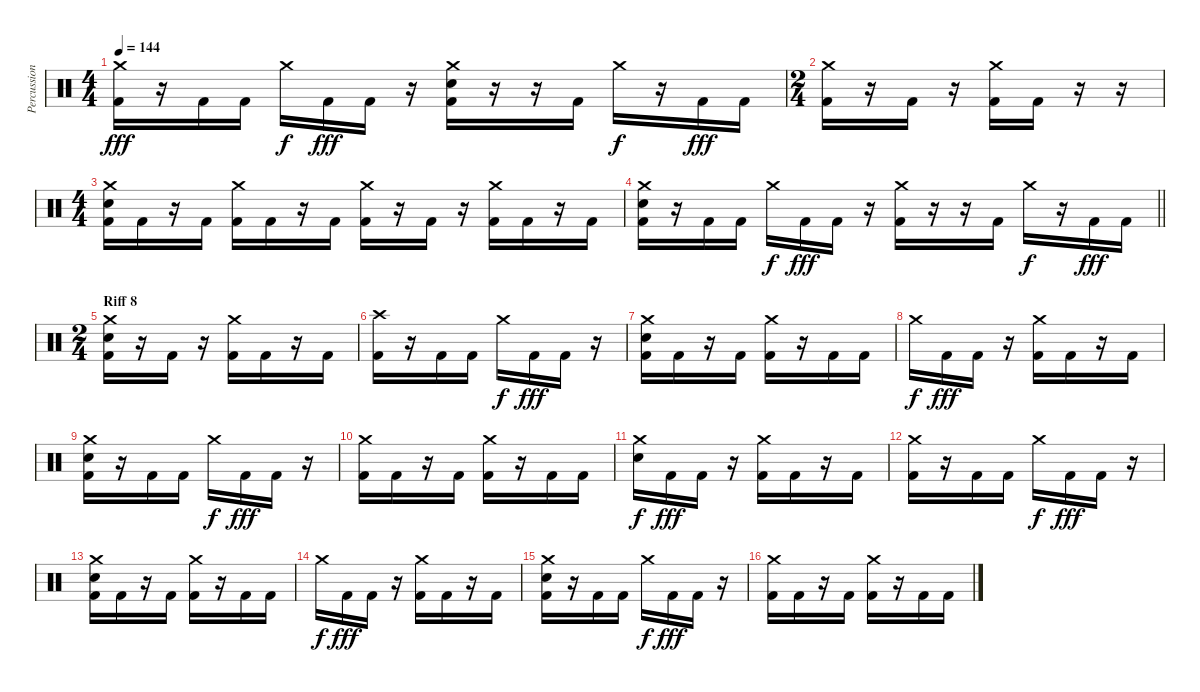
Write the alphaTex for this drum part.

\track ("Percussion" "Percussion") {instrument percussion}
\staff {score}
\articulation defaults
\ts (4 4)
\tempo 144
\clef neutral
\ks c
("Crash medium (hit)" "Kick (hit) 2").16{dy fff} r.16 "Kick (hit) 2".16 "Kick (hit) 2".16 "Crash medium (hit)".16{dy f} "Kick (hit) 2".16{dy fff} "Kick (hit) 2".16 r.16 ("Crash medium (hit)" "Electric Snare (hit)" "Kick (hit) 2").16 r.16 r.16 "Kick (hit) 2".16 "Crash medium (hit)".16{dy f} r.16 "Kick (hit) 2".16{dy fff} "Kick (hit) 2".16 |
\ts (2 4)
("Crash medium (hit)" "Kick (hit) 2").16 r.16 "Kick (hit) 2".16 r.16 ("Crash medium (hit)" "Kick (hit) 2").16 "Kick (hit) 2".16 r.16 r.16 |
\ts (4 4)
("Crash medium (hit)" "Electric Snare (hit)" "Kick (hit) 2").16 "Kick (hit) 2".16 r.16 "Kick (hit) 2".16 ("Crash medium (hit)" "Kick (hit) 2").16 "Kick (hit) 2".16 r.16 "Kick (hit) 2".16 ("Crash medium (hit)" "Kick (hit) 2").16 r.16 "Kick (hit) 2".16 r.16 ("Crash medium (hit)" "Kick (hit) 2").16 "Kick (hit) 2".16 r.16 "Kick (hit) 2".16 |
\barLineRight lightlight
("Crash medium (hit)" "Electric Snare (hit)" "Kick (hit) 2").16 r.16 "Kick (hit) 2".16 "Kick (hit) 2".16 "Crash medium (hit)".16{dy f} "Kick (hit) 2".16{dy fff} "Kick (hit) 2".16 r.16 ("Crash medium (hit)" "Kick (hit) 2").16 r.16 r.16 "Kick (hit) 2".16 "Crash medium (hit)".16{dy f} r.16 "Kick (hit) 2".16{dy fff} "Kick (hit) 2".16 |
\ts (2 4)
\section ("" "Riff 8")
("Crash medium (hit)" "Electric Snare (hit)" "Kick (hit) 2").16 r.16 "Kick (hit) 2".16 r.16 ("Crash medium (hit)" "Kick (hit) 2").16 "Kick (hit) 2".16 r.16 "Kick (hit) 2".16 |
("Crash high (hit)" "Kick (hit) 2").16 r.16 "Kick (hit) 2".16 "Kick (hit) 2".16 "Crash medium (hit)".16{dy f} "Kick (hit) 2".16{dy fff} "Kick (hit) 2".16 r.16 |
("Crash medium (hit)" "Electric Snare (hit)" "Kick (hit) 2").16 "Kick (hit) 2".16 r.16 "Kick (hit) 2".16 ("Crash medium (hit)" "Kick (hit) 2").16 r.16 "Kick (hit) 2".16 "Kick (hit) 2".16 |
"Crash medium (hit)".16{dy f} "Kick (hit) 2".16{dy fff} "Kick (hit) 2".16 r.16 ("Crash medium (hit)" "Kick (hit) 2").16 "Kick (hit) 2".16 r.16 "Kick (hit) 2".16 |
("Crash medium (hit)" "Electric Snare (hit)" "Kick (hit) 2").16 r.16 "Kick (hit) 2".16 "Kick (hit) 2".16 "Crash medium (hit)".16{dy f} "Kick (hit) 2".16{dy fff} "Kick (hit) 2".16 r.16 |
("Crash medium (hit)" "Kick (hit) 2").16 "Kick (hit) 2".16 r.16 "Kick (hit) 2".16 ("Crash medium (hit)" "Kick (hit) 2").16 r.16 "Kick (hit) 2".16 "Kick (hit) 2".16 |
("Crash medium (hit)" "Electric Snare (hit)").16{dy f} "Kick (hit) 2".16{dy fff} "Kick (hit) 2".16 r.16 ("Crash medium (hit)" "Kick (hit) 2").16 "Kick (hit) 2".16 r.16 "Kick (hit) 2".16 |
("Crash medium (hit)" "Kick (hit) 2").16 r.16 "Kick (hit) 2".16 "Kick (hit) 2".16 "Crash medium (hit)".16{dy f} "Kick (hit) 2".16{dy fff} "Kick (hit) 2".16 r.16 |
("Crash medium (hit)" "Electric Snare (hit)" "Kick (hit) 2").16 "Kick (hit) 2".16 r.16 "Kick (hit) 2".16 ("Crash medium (hit)" "Kick (hit) 2").16 r.16 "Kick (hit) 2".16 "Kick (hit) 2".16 |
"Crash medium (hit)".16{dy f} "Kick (hit) 2".16{dy fff} "Kick (hit) 2".16 r.16 ("Crash medium (hit)" "Kick (hit) 2").16 "Kick (hit) 2".16 r.16 "Kick (hit) 2".16 |
("Crash medium (hit)" "Electric Snare (hit)" "Kick (hit) 2").16 r.16 "Kick (hit) 2".16 "Kick (hit) 2".16 "Crash medium (hit)".16{dy f} "Kick (hit) 2".16{dy fff} "Kick (hit) 2".16 r.16 |
("Crash medium (hit)" "Kick (hit) 2").16 "Kick (hit) 2".16 r.16 "Kick (hit) 2".16 ("Crash medium (hit)" "Kick (hit) 2").16 r.16 "Kick (hit) 2".16 "Kick (hit) 2".16
